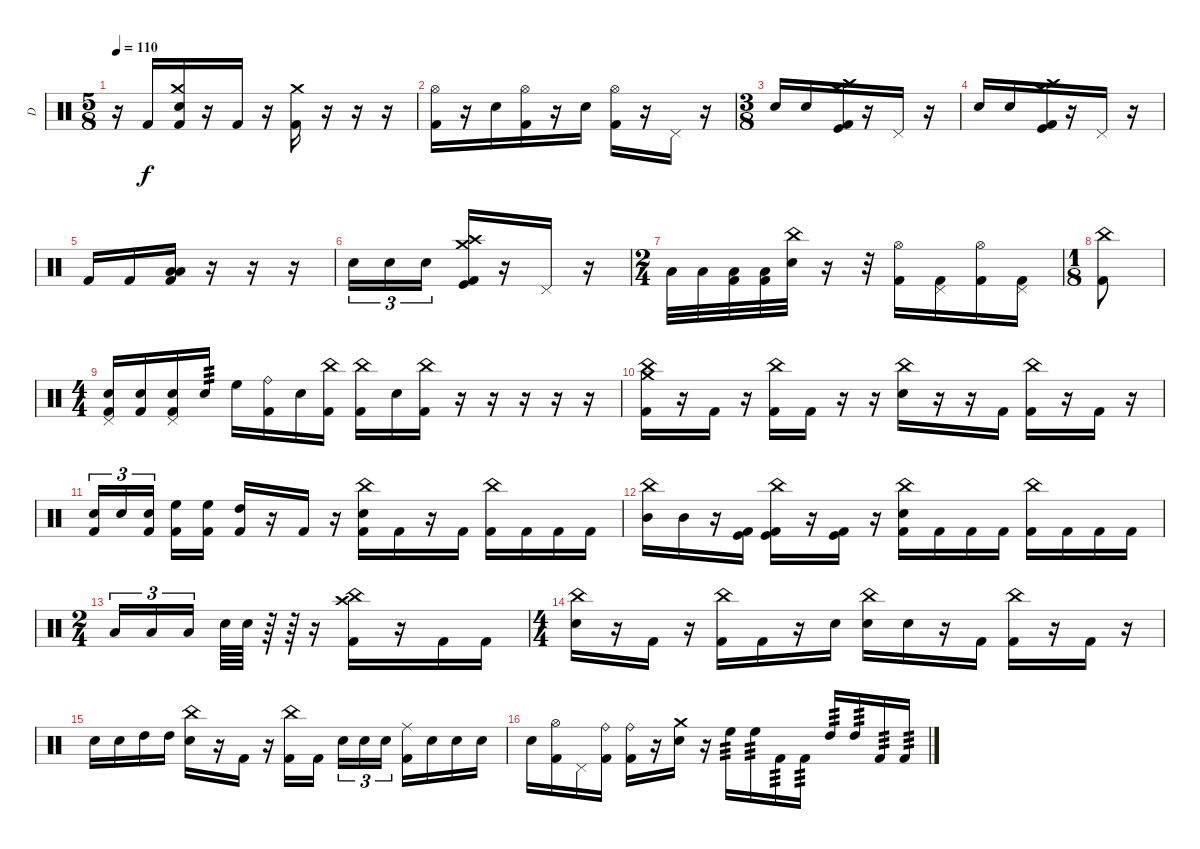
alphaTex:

\track ("D" "D") {instrument percussion}
\staff {score}
\articulation defaults
\ts (5 8)
\tempo 110
\clef neutral
\ks c
r.16{dy f} "Kick (hit) 2".16 ("Crash medium (hit)" "Electric Snare (hit)" "Kick (hit) 2").16 r.16 "Kick (hit) 2".16 r.16 ("Crash medium (hit)" "Kick (hit) 2").16 r.16 r.16 r.16 |
("Hi-Hat (open)" "Kick (hit) 2").16 r.16 "Electric Snare (hit)".16 ("Hi-Hat (open)" "Kick (hit) 2").16 r.16 "Electric Snare (hit)".16 ("Hi-Hat (open)" "Kick (hit) 2").16 r.16 "Pedal Hi-Hat (hit)".16 r.16 |
\ts (3 8)
"Electric Snare (hit)".16 "Electric Snare (hit)".16 ("Crash medium (hit)" "Crash high (hit)" "Kick (hit)" "Kick (hit) 2").16 r.16 "Pedal Hi-Hat (hit)".16 r.16 |
"Electric Snare (hit)".16 "Electric Snare (hit)".16 ("Crash medium (hit)" "Crash high (hit)" "Kick (hit)" "Kick (hit) 2").16 r.16 "Pedal Hi-Hat (hit)".16 r.16 |
"Kick (hit) 2".16 "Kick (hit) 2".16 ("Low Tom (hit)" "Low Floor Tom (hit)" "Kick (hit) 2").16 r.16 r.16 r.16 |
"Electric Snare (hit)".16{tu (3 2)} "Electric Snare (hit)".16{tu (3 2)} "Electric Snare (hit)".16{tu (3 2)} ("Crash medium (hit)" "Crash high (hit)" "Kick (hit)" "Kick (hit) 2").16 r.16 "Pedal Hi-Hat (hit)".16 r.16 |
\ts (2 4)
"Low Floor Tom (hit)".32 "Low Tom (hit)".32 ("Kick (hit) 2" "Low Floor Tom (hit)").32 ("Kick (hit) 2" "Low Tom (hit)").32 ("China (hit)" "Electric Snare (hit)").32 r.16 r.32 ("Hi-Hat (open)" "Kick (hit) 2").16 ("Pedal Hi-Hat (hit)" "Kick (hit) 2").16 ("Hi-Hat (open)" "Kick (hit) 2").16 ("Pedal Hi-Hat (hit)" "Kick (hit) 2").16 |
\ts (1 8)
("China (hit)" "Kick (hit) 2").8 |
\ts (4 4)
("Kick (hit) 2" "Pedal Hi-Hat (hit)" "Electric Snare (hit)").16 ("Kick (hit) 2" "Electric Snare (hit)").16 ("Kick (hit) 2" "Pedal Hi-Hat (hit)" "Electric Snare (hit)").16 "Electric Snare (hit)".16{tp 3} "High Floor Tom (hit)".16 ("Kick (hit) 2" "Ride (bell)").16 "Electric Snare (hit)".16 ("China (hit)" "Kick (hit) 2").16 ("China (hit)" "Kick (hit) 2").16 "Electric Snare (hit)".16 ("China (hit)" "Kick (hit) 2").16 r.16{volume 0} r.16 r.16 r.16 r.16 |
("China (hit)" "Crash medium (hit)" "Kick (hit) 2").16{volume 16} r.16 "Kick (hit) 2".16 r.16 ("China (hit)" "Kick (hit) 2").16 "Kick (hit) 2".16 r.16 r.16 ("China (hit)" "Electric Snare (hit)").16 r.16 r.16 "Kick (hit) 2".16 ("China (hit)" "Kick (hit) 2").16 r.16 "Kick (hit) 2".16 r.16 |
("Electric Snare (hit)" "Kick (hit) 2").16{tu (3 2)} "Electric Snare (hit)".16{tu (3 2)} ("Electric Snare (hit)" "Kick (hit) 2").16{tu (3 2) beam splitsecondary} ("High Floor Tom (hit)" "Kick (hit) 2").16 ("High Floor Tom (hit)" "Kick (hit) 2").16 ("High Tom (hit)" "Kick (hit) 2").16 r.16 "Kick (hit) 2".16 r.16 ("China (hit)" "Electric Snare (hit)" "Kick (hit) 2").16 "Kick (hit) 2".16 r.16 "Kick (hit) 2".16 ("China (hit)" "Kick (hit) 2").16 "Kick (hit) 2".16 "Kick (hit) 2".16 "Kick (hit) 2".16 |
("China (hit)" "Mid Tom (hit)").16 "Mid Tom (hit)".16 r.16 ("Kick (hit)" "Kick (hit) 2").16 ("China (hit)" "Kick (hit)" "Kick (hit) 2").16 r.16 ("Kick (hit)" "Kick (hit) 2").16 r.16 ("China (hit)" "Electric Snare (hit)" "Kick (hit) 2").16 "Kick (hit) 2".16 "Kick (hit) 2".16 "Kick (hit) 2".16 ("China (hit)" "Kick (hit) 2").16 "Kick (hit) 2".16 "Kick (hit) 2".16 "Kick (hit) 2".16 |
\ts (2 4)
"Low Tom (hit)".16{tu (3 2)} "Low Tom (hit)".16{tu (3 2)} "Low Tom (hit)".16{tu (3 2) beam splitsecondary} "Electric Snare (hit)".64 "Electric Snare (hit)".64 r.64 r.64 r.16 ("China (hit)" "Crash high (hit)" "Kick (hit) 2").16 r.16 "Kick (hit) 2".16 "Kick (hit) 2".16 |
\ts (4 4)
("China (hit)" "Electric Snare (hit)").16 r.16 "Kick (hit) 2".16 r.16 ("China (hit)" "Kick (hit) 2").16 "Kick (hit) 2".16 r.16 "Electric Snare (hit)".16 ("China (hit)" "Electric Snare (hit)").16 "Electric Snare (hit)".16 r.16 "Kick (hit) 2".16 ("China (hit)" "Kick (hit) 2").16 r.16 "Kick (hit) 2".16 r.16 |
"Electric Snare (hit)".16 "Electric Snare (hit)".16 "High Tom (hit)".16 "High Tom (hit)".16 ("China (hit)" "Electric Snare (hit)").16 r.16 "Kick (hit) 2".16 r.16 ("China (hit)" "Kick (hit) 2").16 "Kick (hit) 2".16{beam splitsecondary} "Electric Snare (hit)".16{tu (3 2)} "Electric Snare (hit)".16{tu (3 2)} "Electric Snare (hit)".16{tu (3 2)} ("Ride (middle)" "Kick (hit) 2").16 "Electric Snare (hit)".16 "Electric Snare (hit)".16 "Electric Snare (hit)".16 |
"Electric Snare (hit)".16 ("Hi-Hat (open)" "Kick (hit) 2").16 "Pedal Hi-Hat (hit)".16 ("Ride (bell)" "Kick (hit) 2").16 ("Ride (bell)" "Kick (hit) 2").16 r.16 ("Crash medium (hit)" "Electric Snare (hit)").16 r.16 "High Floor Tom (hit)".16{tp 3} "High Floor Tom (hit)".16{tp 3} "Kick (hit) 2".16{tp 3} "Kick (hit) 2".16{tp 3} "High Tom (hit)".16{tp 3} "High Tom (hit)".16{tp 3} "Kick (hit) 2".16{tp 3} "Kick (hit) 2".16{tp 3}
